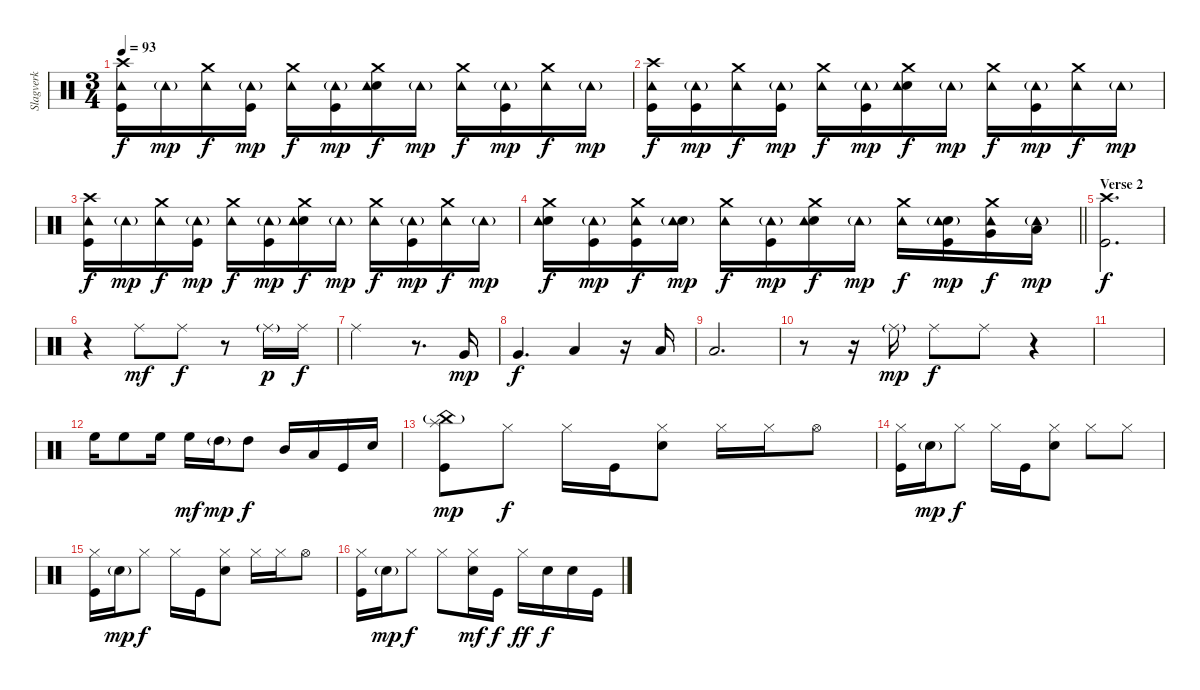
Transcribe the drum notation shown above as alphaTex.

\track ("Slagverk" "Slagverk") {instrument percussion}
\staff {score}
\articulation defaults
\ts (3 4)
\tempo 93
\clef neutral
\ks c
("Crash high (hit)" "Tambourine (hit)" "Kick (hit)").16{dy f} "Tambourine (hit)"{g}.16{dy mp} ("Crash medium (hit)" "Tambourine (hit)").16{dy f} ("Tambourine (hit)"{g} "Kick (hit)").16{dy mp} ("Crash medium (hit)" "Tambourine (hit)").16{dy f} ("Kick (hit)" "Tambourine (hit)"{g}).16{dy mp} ("Crash medium (hit)" "Electric Snare (hit)" "Tambourine (hit)").16{dy f} "Tambourine (hit)"{g}.16{dy mp} ("Crash medium (hit)" "Tambourine (hit)").16{dy f} ("Kick (hit)" "Tambourine (hit)"{g}).16{dy mp} ("Crash medium (hit)" "Tambourine (hit)").16{dy f} "Tambourine (hit)"{g}.16{dy mp} |
("Crash high (hit)" "Kick (hit)" "Tambourine (hit)").16{dy f} ("Kick (hit)" "Tambourine (hit)"{g}).16{dy mp} ("Crash medium (hit)" "Tambourine (hit)").16{dy f} ("Kick (hit)" "Tambourine (hit)"{g}).16{dy mp} ("Crash medium (hit)" "Tambourine (hit)").16{dy f} ("Kick (hit)" "Tambourine (hit)"{g}).16{dy mp} ("Crash medium (hit)" "Electric Snare (hit)" "Tambourine (hit)").16{dy f} "Tambourine (hit)"{g}.16{dy mp} ("Crash medium (hit)" "Tambourine (hit)").16{dy f} ("Kick (hit)" "Tambourine (hit)"{g}).16{dy mp} ("Crash medium (hit)" "Tambourine (hit)").16{dy f} "Tambourine (hit)"{g}.16{dy mp} |
("Crash high (hit)" "Kick (hit)" "Tambourine (hit)").16{dy f} "Tambourine (hit)"{g}.16{dy mp} ("Crash medium (hit)" "Tambourine (hit)").16{dy f} ("Kick (hit)" "Tambourine (hit)"{g}).16{dy mp} ("Crash medium (hit)" "Tambourine (hit)").16{dy f} ("Kick (hit)" "Tambourine (hit)"{g}).16{dy mp} ("Crash medium (hit)" "Electric Snare (hit)" "Tambourine (hit)").16{dy f} "Tambourine (hit)"{g}.16{dy mp} ("Crash medium (hit)" "Tambourine (hit)").16{dy f} ("Kick (hit)" "Tambourine (hit)"{g}).16{dy mp} ("Crash medium (hit)" "Tambourine (hit)").16{dy f} "Tambourine (hit)"{g}.16{dy mp} |
\barLineRight lightlight
("Crash medium (hit)" "Electric Snare (hit)" "Tambourine (hit)").16{dy f} ("Kick (hit)" "Tambourine (hit)"{g}).16{dy mp} ("Crash medium (hit)" "Kick (hit)" "Tambourine (hit)").16{dy f} ("Electric Snare (hit)" "Tambourine (hit)"{g}).16{dy mp} ("Crash medium (hit)" "Tambourine (hit)").16{dy f} ("Kick (hit)" "Tambourine (hit)"{g}).16{dy mp} ("Crash medium (hit)" "Electric Snare (hit)" "Tambourine (hit)").16{dy f} "Tambourine (hit)"{g}.16{dy mp} ("Crash medium (hit)" "Tambourine (hit)").16{dy f} ("Kick (hit)" "Electric Snare (hit)" "Tambourine (hit)"{g}).16{dy mp} ("Crash medium (hit)" "Very Low Tom (hit)" "Tambourine (hit)").16{dy f} ("Low Floor Tom (hit)" "Tambourine (hit)"{g}).16{dy mp} |
\section ("" "Verse 2")
("Kick (hit)" "Crash high (hit)").2{d dy f} |
r.4 "Ride (middle)".8{dy mf} "Ride (middle)".8{dy f} r.8 "Ride (middle)"{g}.16{dy p} "Ride (middle)".16{dy f} |
"Ride (middle)".2 r.8{d} "Very Low Tom (hit)".16{dy mp} |
"Very Low Tom (hit)".4{d dy f} "Low Floor Tom (hit)".4 r.16 "Low Floor Tom (hit)".16 |
"Low Floor Tom (hit)".2{d} |
r.8 r.16 "Ride (middle)"{g}.16{dy mp} "Ride (middle)".8{dy f} "Ride (middle)".8 r.4 |
|
"High Floor Tom (hit)".16 "High Floor Tom (hit)".8 "High Floor Tom (hit)".16 "High Floor Tom (hit)".16{dy mf} "High Tom (hit)"{g}.16{dy mp} "High Tom (hit)".8{dy f} "Mid Tom (hit)".16 "Low Tom (hit)".16 "Kick (hit)".16 "Electric Snare (hit)".16 |
("Splash (hit)" "Kick (hit)" "China (hit)"{g}).8{dy mp} "Hi-Hat (closed)".8{dy f} "Hi-Hat (closed)".16 "Kick (hit)".16 ("Hi-Hat (closed)" "Electric Snare (hit)").8 "Hi-Hat (closed)".16 "Hi-Hat (closed)".16 "Hi-Hat (open)".8 |
("Hi-Hat (closed)" "Kick (hit)").16 "Electric Snare (hit)"{g}.16{dy mp} "Hi-Hat (closed)".8{dy f} "Hi-Hat (closed)".16 "Kick (hit)".16 ("Hi-Hat (closed)" "Electric Snare (hit)").8 "Hi-Hat (closed)".8 "Hi-Hat (closed)".8 |
("Hi-Hat (closed)" "Kick (hit)").16 "Electric Snare (hit)"{g}.16{dy mp} "Hi-Hat (closed)".8{dy f} "Hi-Hat (closed)".16 "Kick (hit)".16 ("Hi-Hat (closed)" "Electric Snare (hit)").8 "Hi-Hat (closed)".16 "Hi-Hat (closed)".16 "Hi-Hat (open)".8 |
("Hi-Hat (closed)" "Kick (hit)").16 "Electric Snare (hit)"{g}.16{dy mp} "Hi-Hat (closed)".8{dy f} "Hi-Hat (closed)".8 ("Electric Snare (hit)" "Hi-Hat (closed)").16{dy mf} "Kick (hit)".16{dy f} "Hi-Hat (closed)".16{dy ff} "Electric Snare (hit)".16{dy f} "Electric Snare (hit)".16 "Kick (hit)".16
